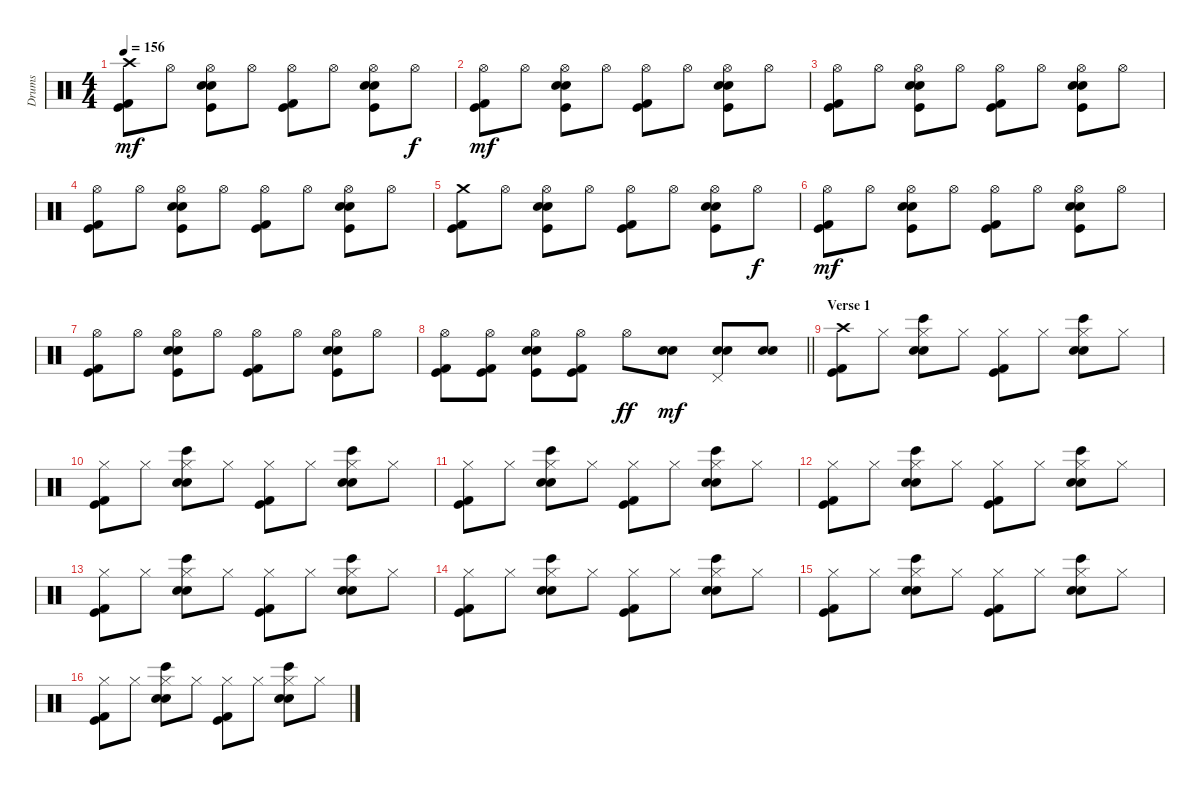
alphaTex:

\track ("Drums" "Drums") {instrument percussion}
\staff {score}
\articulation defaults
\ts (4 4)
\tempo 156
\clef neutral
\ks c
("Crash high (hit)" "Kick (hit) 2" "Kick (hit)").8{dy mf} "Hi-Hat (open)".8 ("Hi-Hat (open)" "Snare (hit) 2" "Electric Snare (hit)" "Kick (hit)").8 "Hi-Hat (open)".8 ("Hi-Hat (open)" "Kick (hit) 2" "Kick (hit)").8 "Hi-Hat (open)".8 ("Hi-Hat (open)" "Snare (hit) 2" "Electric Snare (hit)" "Kick (hit)").8 "Hi-Hat (open)".8{dy f} |
("Hi-Hat (open)" "Kick (hit) 2" "Kick (hit)").8{dy mf} "Hi-Hat (open)".8 ("Hi-Hat (open)" "Snare (hit) 2" "Electric Snare (hit)" "Kick (hit)").8 "Hi-Hat (open)".8 ("Hi-Hat (open)" "Kick (hit) 2" "Kick (hit)").8 "Hi-Hat (open)".8 ("Hi-Hat (open)" "Snare (hit) 2" "Electric Snare (hit)" "Kick (hit)").8 "Hi-Hat (open)".8 |
("Hi-Hat (open)" "Kick (hit) 2" "Kick (hit)").8 "Hi-Hat (open)".8 ("Hi-Hat (open)" "Snare (hit) 2" "Electric Snare (hit)" "Kick (hit)").8 "Hi-Hat (open)".8 ("Hi-Hat (open)" "Kick (hit) 2" "Kick (hit)").8 "Hi-Hat (open)".8 ("Hi-Hat (open)" "Snare (hit) 2" "Electric Snare (hit)" "Kick (hit)").8 "Hi-Hat (open)".8 |
("Hi-Hat (open)" "Kick (hit) 2" "Kick (hit)").8 "Hi-Hat (open)".8 ("Hi-Hat (open)" "Snare (hit) 2" "Electric Snare (hit)" "Kick (hit)").8 "Hi-Hat (open)".8 ("Hi-Hat (open)" "Kick (hit) 2" "Kick (hit)").8 "Hi-Hat (open)".8 ("Hi-Hat (open)" "Snare (hit) 2" "Electric Snare (hit)" "Kick (hit)").8 "Hi-Hat (open)".8 |
("Crash medium (hit)" "Kick (hit) 2" "Kick (hit)").8 "Hi-Hat (open)".8 ("Hi-Hat (open)" "Snare (hit) 2" "Electric Snare (hit)" "Kick (hit)").8 "Hi-Hat (open)".8 ("Hi-Hat (open)" "Kick (hit) 2" "Kick (hit)").8 "Hi-Hat (open)".8 ("Hi-Hat (open)" "Snare (hit) 2" "Electric Snare (hit)" "Kick (hit)").8 "Hi-Hat (open)".8{dy f} |
("Hi-Hat (open)" "Kick (hit) 2" "Kick (hit)").8{dy mf} "Hi-Hat (open)".8 ("Hi-Hat (open)" "Snare (hit) 2" "Electric Snare (hit)" "Kick (hit)").8 "Hi-Hat (open)".8 ("Hi-Hat (open)" "Kick (hit) 2" "Kick (hit)").8 "Hi-Hat (open)".8 ("Hi-Hat (open)" "Snare (hit) 2" "Electric Snare (hit)" "Kick (hit)").8 "Hi-Hat (open)".8 |
("Hi-Hat (open)" "Kick (hit) 2" "Kick (hit)").8 "Hi-Hat (open)".8 ("Hi-Hat (open)" "Snare (hit) 2" "Electric Snare (hit)" "Kick (hit)").8 "Hi-Hat (open)".8 ("Hi-Hat (open)" "Kick (hit) 2" "Kick (hit)").8 "Hi-Hat (open)".8 ("Hi-Hat (open)" "Snare (hit) 2" "Electric Snare (hit)" "Kick (hit)").8 "Hi-Hat (open)".8 |
\barLineRight lightlight
("Hi-Hat (open)" "Kick (hit) 2" "Kick (hit)").8 ("Hi-Hat (open)" "Kick (hit) 2" "Kick (hit)").8 ("Hi-Hat (open)" "Snare (hit) 2" "Electric Snare (hit)" "Kick (hit)").8 ("Hi-Hat (open)" "Kick (hit) 2" "Kick (hit)").8 "Hi-Hat (open)".8{dy ff} ("Snare (hit) 2" "Electric Snare (hit)").8{dy mf} ("Pedal Hi-Hat (hit)" "Snare (hit) 2" "Electric Snare (hit)").8 ("Snare (hit) 2" "Electric Snare (hit)").8 |
\section ("" "Verse 1")
("Crash high (hit)" "Kick (hit) 2" "Kick (hit)").8 "Hi-Hat (closed)".8 ("Hi-Hat (closed)" "Bongo High (hit)" "Snare (hit) 2" "Electric Snare (hit)").8 "Hi-Hat (closed)".8 ("Hi-Hat (closed)" "Kick (hit) 2" "Kick (hit)").8 "Hi-Hat (closed)".8 ("Hi-Hat (closed)" "Bongo High (hit)" "Snare (hit) 2" "Electric Snare (hit)").8 "Hi-Hat (closed)".8 |
("Hi-Hat (closed)" "Kick (hit) 2" "Kick (hit)").8 "Hi-Hat (closed)".8 ("Hi-Hat (closed)" "Bongo High (hit)" "Snare (hit) 2" "Electric Snare (hit)").8 "Hi-Hat (closed)".8 ("Hi-Hat (closed)" "Kick (hit) 2" "Kick (hit)").8 "Hi-Hat (closed)".8 ("Hi-Hat (closed)" "Bongo High (hit)" "Snare (hit) 2" "Electric Snare (hit)").8 "Hi-Hat (closed)".8 |
("Hi-Hat (closed)" "Kick (hit) 2" "Kick (hit)").8 "Hi-Hat (closed)".8 ("Hi-Hat (closed)" "Bongo High (hit)" "Snare (hit) 2" "Electric Snare (hit)").8 "Hi-Hat (closed)".8 ("Hi-Hat (closed)" "Kick (hit) 2" "Kick (hit)").8 "Hi-Hat (closed)".8 ("Hi-Hat (closed)" "Bongo High (hit)" "Snare (hit) 2" "Electric Snare (hit)").8 "Hi-Hat (closed)".8 |
("Hi-Hat (closed)" "Kick (hit) 2" "Kick (hit)").8 "Hi-Hat (closed)".8 ("Hi-Hat (closed)" "Bongo High (hit)" "Snare (hit) 2" "Electric Snare (hit)").8 "Hi-Hat (closed)".8 ("Hi-Hat (closed)" "Kick (hit) 2" "Kick (hit)").8 "Hi-Hat (closed)".8 ("Hi-Hat (closed)" "Bongo High (hit)" "Snare (hit) 2" "Electric Snare (hit)").8 "Hi-Hat (closed)".8 |
("Hi-Hat (closed)" "Kick (hit) 2" "Kick (hit)").8 "Hi-Hat (closed)".8 ("Hi-Hat (closed)" "Bongo High (hit)" "Snare (hit) 2" "Electric Snare (hit)").8 "Hi-Hat (closed)".8 ("Hi-Hat (closed)" "Kick (hit) 2" "Kick (hit)").8 "Hi-Hat (closed)".8 ("Hi-Hat (closed)" "Bongo High (hit)" "Snare (hit) 2" "Electric Snare (hit)").8 "Hi-Hat (closed)".8 |
("Hi-Hat (closed)" "Kick (hit) 2" "Kick (hit)").8 "Hi-Hat (closed)".8 ("Hi-Hat (closed)" "Bongo High (hit)" "Snare (hit) 2" "Electric Snare (hit)").8 "Hi-Hat (closed)".8 ("Hi-Hat (closed)" "Kick (hit) 2" "Kick (hit)").8 "Hi-Hat (closed)".8 ("Hi-Hat (closed)" "Bongo High (hit)" "Snare (hit) 2" "Electric Snare (hit)").8 "Hi-Hat (closed)".8 |
("Hi-Hat (closed)" "Kick (hit) 2" "Kick (hit)").8 "Hi-Hat (closed)".8 ("Hi-Hat (closed)" "Bongo High (hit)" "Snare (hit) 2" "Electric Snare (hit)").8 "Hi-Hat (closed)".8 ("Hi-Hat (closed)" "Kick (hit) 2" "Kick (hit)").8 "Hi-Hat (closed)".8 ("Hi-Hat (closed)" "Bongo High (hit)" "Snare (hit) 2" "Electric Snare (hit)").8 "Hi-Hat (closed)".8 |
("Hi-Hat (closed)" "Kick (hit) 2" "Kick (hit)").8 "Hi-Hat (closed)".8 ("Hi-Hat (closed)" "Bongo High (hit)" "Snare (hit) 2" "Electric Snare (hit)").8 "Hi-Hat (closed)".8 ("Hi-Hat (closed)" "Kick (hit) 2" "Kick (hit)").8 "Hi-Hat (closed)".8 ("Hi-Hat (closed)" "Bongo High (hit)" "Snare (hit) 2" "Electric Snare (hit)").8 "Hi-Hat (closed)".8
